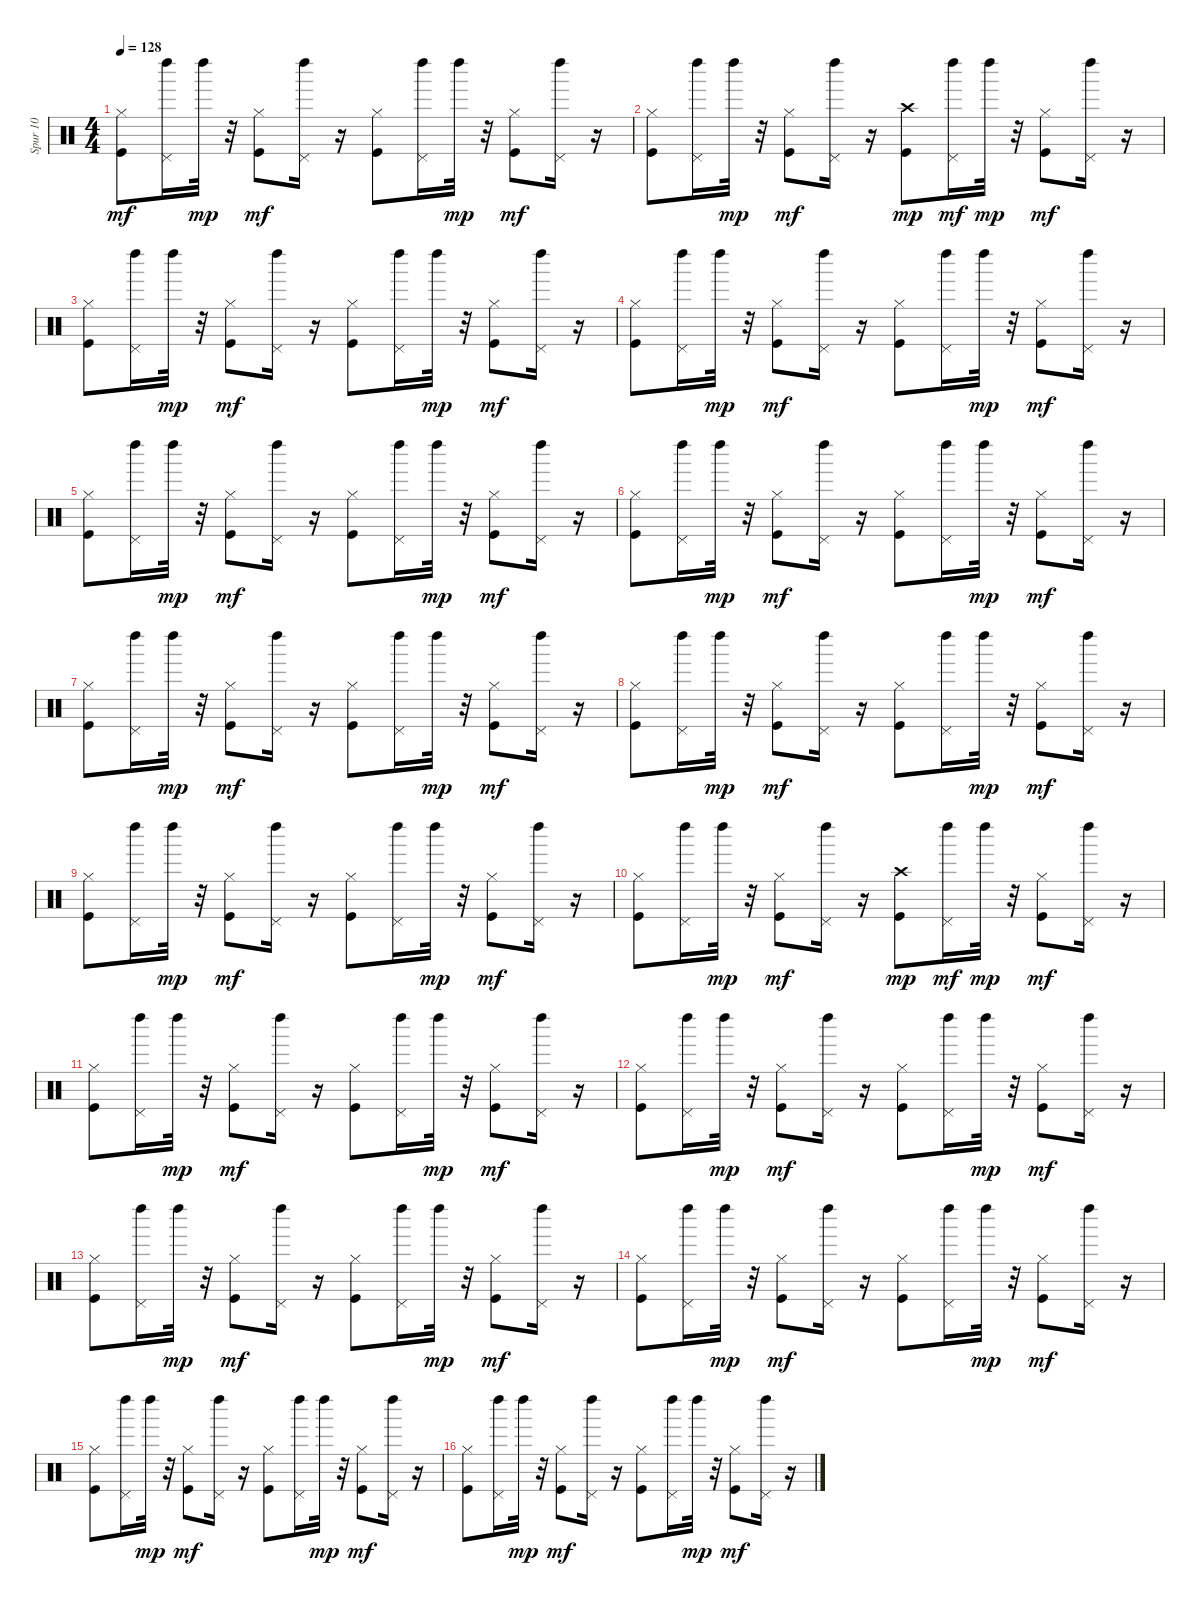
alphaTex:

\track ("Spur 10" "Spur 10") {instrument percussion}
\staff {score}
\articulation defaults
\ts (4 4)
\tempo 128
\clef neutral
\ks c
("Kick (hit)" "Hi-Hat (closed)").8{dy mf} ("Pedal Hi-Hat (hit)" "Left Maraca (hit)").16 "Left Maraca (hit)".32{dy mp} r.32 ("Kick (hit)" "Hi-Hat (closed)").8{dy mf} ("Pedal Hi-Hat (hit)" "Left Maraca (hit)").16 r.16 ("Kick (hit)" "Hi-Hat (closed)").8 ("Pedal Hi-Hat (hit)" "Left Maraca (hit)").16 "Left Maraca (hit)".32{dy mp} r.32 ("Kick (hit)" "Hi-Hat (closed)").8{dy mf} ("Pedal Hi-Hat (hit)" "Left Maraca (hit)").16 r.16 |
("Kick (hit)" "Hi-Hat (closed)").8 ("Pedal Hi-Hat (hit)" "Left Maraca (hit)").16 "Left Maraca (hit)".32{dy mp} r.32 ("Kick (hit)" "Hi-Hat (closed)").8{dy mf} ("Pedal Hi-Hat (hit)" "Left Maraca (hit)").16 r.16 ("Kick (hit)" "Crash high (hit)").8{dy mp} ("Pedal Hi-Hat (hit)" "Left Maraca (hit)").16{dy mf} "Left Maraca (hit)".32{dy mp} r.32 ("Kick (hit)" "Hi-Hat (closed)").8{dy mf} ("Pedal Hi-Hat (hit)" "Left Maraca (hit)").16 r.16 |
("Kick (hit)" "Hi-Hat (closed)").8 ("Pedal Hi-Hat (hit)" "Left Maraca (hit)").16 "Left Maraca (hit)".32{dy mp} r.32 ("Kick (hit)" "Hi-Hat (closed)").8{dy mf} ("Pedal Hi-Hat (hit)" "Left Maraca (hit)").16 r.16 ("Kick (hit)" "Hi-Hat (closed)").8 ("Pedal Hi-Hat (hit)" "Left Maraca (hit)").16 "Left Maraca (hit)".32{dy mp} r.32 ("Kick (hit)" "Hi-Hat (closed)").8{dy mf} ("Pedal Hi-Hat (hit)" "Left Maraca (hit)").16 r.16 |
("Kick (hit)" "Hi-Hat (closed)").8 ("Pedal Hi-Hat (hit)" "Left Maraca (hit)").16 "Left Maraca (hit)".32{dy mp} r.32 ("Kick (hit)" "Hi-Hat (closed)").8{dy mf} ("Pedal Hi-Hat (hit)" "Left Maraca (hit)").16 r.16 ("Kick (hit)" "Hi-Hat (closed)").8 ("Pedal Hi-Hat (hit)" "Left Maraca (hit)").16 "Left Maraca (hit)".32{dy mp} r.32 ("Kick (hit)" "Hi-Hat (closed)").8{dy mf} ("Pedal Hi-Hat (hit)" "Left Maraca (hit)").16 r.16 |
("Kick (hit)" "Hi-Hat (closed)").8 ("Pedal Hi-Hat (hit)" "Left Maraca (hit)").16 "Left Maraca (hit)".32{dy mp} r.32 ("Kick (hit)" "Hi-Hat (closed)").8{dy mf} ("Pedal Hi-Hat (hit)" "Left Maraca (hit)").16 r.16 ("Kick (hit)" "Hi-Hat (closed)").8 ("Pedal Hi-Hat (hit)" "Left Maraca (hit)").16 "Left Maraca (hit)".32{dy mp} r.32 ("Kick (hit)" "Hi-Hat (closed)").8{dy mf} ("Pedal Hi-Hat (hit)" "Left Maraca (hit)").16 r.16 |
("Kick (hit)" "Hi-Hat (closed)").8 ("Pedal Hi-Hat (hit)" "Left Maraca (hit)").16 "Left Maraca (hit)".32{dy mp} r.32 ("Kick (hit)" "Hi-Hat (closed)").8{dy mf} ("Pedal Hi-Hat (hit)" "Left Maraca (hit)").16 r.16 ("Kick (hit)" "Hi-Hat (closed)").8 ("Pedal Hi-Hat (hit)" "Left Maraca (hit)").16 "Left Maraca (hit)".32{dy mp} r.32 ("Kick (hit)" "Hi-Hat (closed)").8{dy mf} ("Pedal Hi-Hat (hit)" "Left Maraca (hit)").16 r.16 |
("Kick (hit)" "Hi-Hat (closed)").8 ("Pedal Hi-Hat (hit)" "Left Maraca (hit)").16 "Left Maraca (hit)".32{dy mp} r.32 ("Kick (hit)" "Hi-Hat (closed)").8{dy mf} ("Pedal Hi-Hat (hit)" "Left Maraca (hit)").16 r.16 ("Kick (hit)" "Hi-Hat (closed)").8 ("Pedal Hi-Hat (hit)" "Left Maraca (hit)").16 "Left Maraca (hit)".32{dy mp} r.32 ("Kick (hit)" "Hi-Hat (closed)").8{dy mf} ("Pedal Hi-Hat (hit)" "Left Maraca (hit)").16 r.16 |
("Kick (hit)" "Hi-Hat (closed)").8 ("Pedal Hi-Hat (hit)" "Left Maraca (hit)").16 "Left Maraca (hit)".32{dy mp} r.32 ("Kick (hit)" "Hi-Hat (closed)").8{dy mf} ("Pedal Hi-Hat (hit)" "Left Maraca (hit)").16 r.16 ("Kick (hit)" "Hi-Hat (closed)").8 ("Pedal Hi-Hat (hit)" "Left Maraca (hit)").16 "Left Maraca (hit)".32{dy mp} r.32 ("Kick (hit)" "Hi-Hat (closed)").8{dy mf} ("Pedal Hi-Hat (hit)" "Left Maraca (hit)").16 r.16 |
("Kick (hit)" "Hi-Hat (closed)").8 ("Pedal Hi-Hat (hit)" "Left Maraca (hit)").16 "Left Maraca (hit)".32{dy mp} r.32 ("Kick (hit)" "Hi-Hat (closed)").8{dy mf} ("Pedal Hi-Hat (hit)" "Left Maraca (hit)").16 r.16 ("Kick (hit)" "Hi-Hat (closed)").8 ("Pedal Hi-Hat (hit)" "Left Maraca (hit)").16 "Left Maraca (hit)".32{dy mp} r.32 ("Kick (hit)" "Hi-Hat (closed)").8{dy mf} ("Pedal Hi-Hat (hit)" "Left Maraca (hit)").16 r.16 |
("Kick (hit)" "Hi-Hat (closed)").8 ("Pedal Hi-Hat (hit)" "Left Maraca (hit)").16 "Left Maraca (hit)".32{dy mp} r.32 ("Kick (hit)" "Hi-Hat (closed)").8{dy mf} ("Pedal Hi-Hat (hit)" "Left Maraca (hit)").16 r.16 ("Kick (hit)" "Crash high (hit)").8{dy mp} ("Pedal Hi-Hat (hit)" "Left Maraca (hit)").16{dy mf} "Left Maraca (hit)".32{dy mp} r.32 ("Kick (hit)" "Hi-Hat (closed)").8{dy mf} ("Pedal Hi-Hat (hit)" "Left Maraca (hit)").16 r.16 |
("Kick (hit)" "Hi-Hat (closed)").8 ("Pedal Hi-Hat (hit)" "Left Maraca (hit)").16 "Left Maraca (hit)".32{dy mp} r.32 ("Kick (hit)" "Hi-Hat (closed)").8{dy mf} ("Pedal Hi-Hat (hit)" "Left Maraca (hit)").16 r.16 ("Kick (hit)" "Hi-Hat (closed)").8 ("Pedal Hi-Hat (hit)" "Left Maraca (hit)").16 "Left Maraca (hit)".32{dy mp} r.32 ("Kick (hit)" "Hi-Hat (closed)").8{dy mf} ("Pedal Hi-Hat (hit)" "Left Maraca (hit)").16 r.16 |
("Kick (hit)" "Hi-Hat (closed)").8 ("Pedal Hi-Hat (hit)" "Left Maraca (hit)").16 "Left Maraca (hit)".32{dy mp} r.32 ("Kick (hit)" "Hi-Hat (closed)").8{dy mf} ("Pedal Hi-Hat (hit)" "Left Maraca (hit)").16 r.16 ("Kick (hit)" "Hi-Hat (closed)").8 ("Pedal Hi-Hat (hit)" "Left Maraca (hit)").16 "Left Maraca (hit)".32{dy mp} r.32 ("Kick (hit)" "Hi-Hat (closed)").8{dy mf} ("Pedal Hi-Hat (hit)" "Left Maraca (hit)").16 r.16 |
("Kick (hit)" "Hi-Hat (closed)").8 ("Pedal Hi-Hat (hit)" "Left Maraca (hit)").16 "Left Maraca (hit)".32{dy mp} r.32 ("Kick (hit)" "Hi-Hat (closed)").8{dy mf} ("Pedal Hi-Hat (hit)" "Left Maraca (hit)").16 r.16 ("Kick (hit)" "Hi-Hat (closed)").8 ("Pedal Hi-Hat (hit)" "Left Maraca (hit)").16 "Left Maraca (hit)".32{dy mp} r.32 ("Kick (hit)" "Hi-Hat (closed)").8{dy mf} ("Pedal Hi-Hat (hit)" "Left Maraca (hit)").16 r.16 |
("Kick (hit)" "Hi-Hat (closed)").8 ("Pedal Hi-Hat (hit)" "Left Maraca (hit)").16 "Left Maraca (hit)".32{dy mp} r.32 ("Kick (hit)" "Hi-Hat (closed)").8{dy mf} ("Pedal Hi-Hat (hit)" "Left Maraca (hit)").16 r.16 ("Kick (hit)" "Hi-Hat (closed)").8 ("Pedal Hi-Hat (hit)" "Left Maraca (hit)").16 "Left Maraca (hit)".32{dy mp} r.32 ("Kick (hit)" "Hi-Hat (closed)").8{dy mf} ("Pedal Hi-Hat (hit)" "Left Maraca (hit)").16 r.16 |
("Kick (hit)" "Hi-Hat (closed)").8 ("Pedal Hi-Hat (hit)" "Left Maraca (hit)").16 "Left Maraca (hit)".32{dy mp} r.32 ("Kick (hit)" "Hi-Hat (closed)").8{dy mf} ("Pedal Hi-Hat (hit)" "Left Maraca (hit)").16 r.16 ("Kick (hit)" "Hi-Hat (closed)").8 ("Pedal Hi-Hat (hit)" "Left Maraca (hit)").16 "Left Maraca (hit)".32{dy mp} r.32 ("Kick (hit)" "Hi-Hat (closed)").8{dy mf} ("Pedal Hi-Hat (hit)" "Left Maraca (hit)").16 r.16 |
("Kick (hit)" "Hi-Hat (closed)").8 ("Pedal Hi-Hat (hit)" "Left Maraca (hit)").16 "Left Maraca (hit)".32{dy mp} r.32 ("Kick (hit)" "Hi-Hat (closed)").8{dy mf} ("Pedal Hi-Hat (hit)" "Left Maraca (hit)").16 r.16 ("Kick (hit)" "Hi-Hat (closed)").8 ("Pedal Hi-Hat (hit)" "Left Maraca (hit)").16 "Left Maraca (hit)".32{dy mp} r.32 ("Kick (hit)" "Hi-Hat (closed)").8{dy mf} ("Pedal Hi-Hat (hit)" "Left Maraca (hit)").16 r.16
